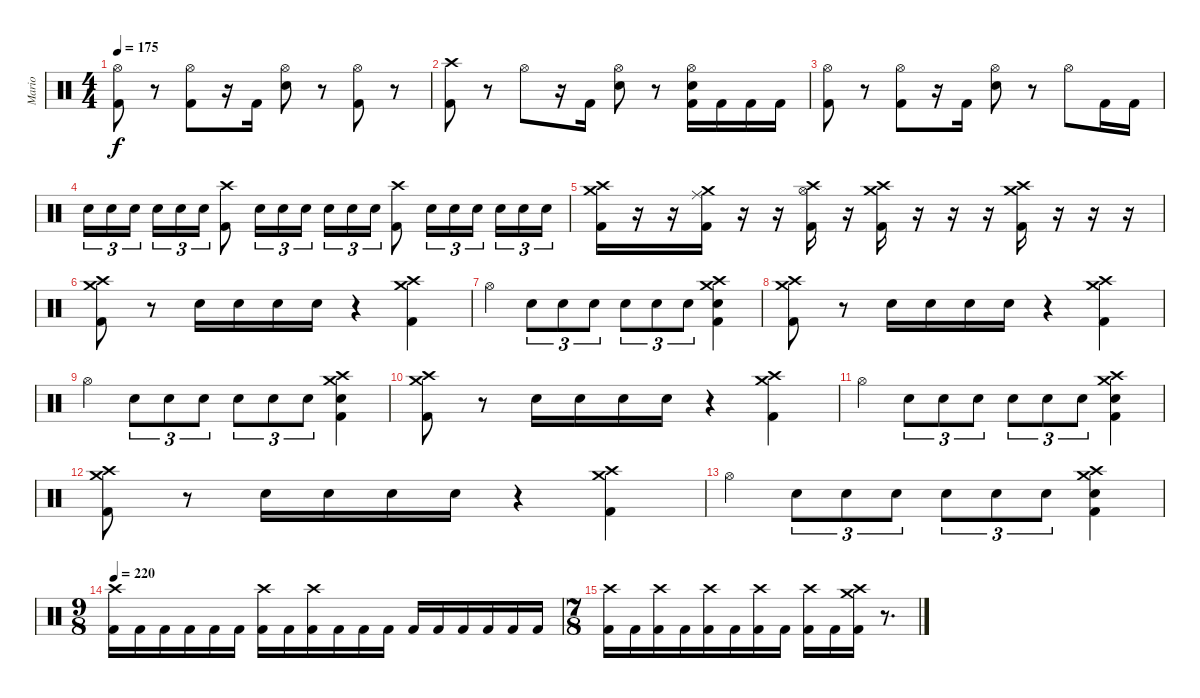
\track ("Mario" "Mario") {instrument percussion}
\staff {score}
\articulation defaults
\ts (4 4)
\tempo 175
\clef neutral
\ks c
("Hi-Hat (open)" "Kick (hit) 2").8{dy f} r.8 ("Hi-Hat (open)" "Kick (hit) 2").8 r.16 "Kick (hit) 2".16 ("Hi-Hat (open)" "Electric Snare (hit)").8 r.8 ("Hi-Hat (open)" "Kick (hit) 2").8 r.8 |
("Crash high (hit)" "Kick (hit) 2").8 r.8 "Hi-Hat (open)".8 r.16 "Kick (hit) 2".16 ("Hi-Hat (open)" "Electric Snare (hit)").8 r.8 ("Hi-Hat (open)" "Electric Snare (hit)" "Kick (hit) 2").16 "Kick (hit) 2".16 "Kick (hit) 2".16 "Kick (hit) 2".16 |
("Hi-Hat (open)" "Kick (hit) 2").8 r.8 ("Hi-Hat (open)" "Kick (hit) 2").8 r.16 "Kick (hit) 2".16 ("Hi-Hat (open)" "Electric Snare (hit)").8 r.8 "Hi-Hat (open)".8 "Kick (hit) 2".16 "Kick (hit) 2".16 |
"Electric Snare (hit)".16{tu (3 2)} "Electric Snare (hit)".16{tu (3 2)} "Electric Snare (hit)".16{tu (3 2)} "Electric Snare (hit)".16{tu (3 2)} "Electric Snare (hit)".16{tu (3 2)} "Electric Snare (hit)".16{tu (3 2)} ("Crash high (hit)" "Kick (hit) 2").8 "Electric Snare (hit)".16{tu (3 2)} "Electric Snare (hit)".16{tu (3 2)} "Electric Snare (hit)".16{tu (3 2)} "Electric Snare (hit)".16{tu (3 2)} "Electric Snare (hit)".16{tu (3 2)} "Electric Snare (hit)".16{tu (3 2)} ("Crash high (hit)" "Kick (hit) 2").8 "Electric Snare (hit)".16{tu (3 2)} "Electric Snare (hit)".16{tu (3 2)} "Electric Snare (hit)".16{tu (3 2)} "Electric Snare (hit)".16{tu (3 2)} "Electric Snare (hit)".16{tu (3 2)} "Electric Snare (hit)".16{tu (3 2)} |
("Crash high (hit)" "Crash medium (hit)" "Kick (hit) 2").16 r.16 r.16 ("Crash medium (hit)" "Ride (middle)" "Kick (hit) 2").16 r.16 r.16 ("Crash high (hit)" "Hi-Hat (open)" "Kick (hit) 2").16 r.16 ("Crash high (hit)" "Crash medium (hit)" "Kick (hit) 2").16 r.16 r.16 r.16 ("Crash high (hit)" "Crash medium (hit)" "Kick (hit) 2").16 r.16 r.16 r.16 |
("Crash high (hit)" "Crash medium (hit)" "Kick (hit) 2").8 r.8 "Electric Snare (hit)".16 "Electric Snare (hit)".16 "Electric Snare (hit)".16 "Electric Snare (hit)".16 r.4 ("Crash high (hit)" "Crash medium (hit)" "Kick (hit) 2").4 |
"Hi-Hat (open)".4 "Electric Snare (hit)".8{tu (3 2)} "Electric Snare (hit)".8{tu (3 2)} "Electric Snare (hit)".8{tu (3 2)} "Electric Snare (hit)".8{tu (3 2)} "Electric Snare (hit)".8{tu (3 2)} "Electric Snare (hit)".8{tu (3 2)} ("Crash high (hit)" "Crash medium (hit)" "Electric Snare (hit)" "Kick (hit) 2").4 |
("Crash high (hit)" "Crash medium (hit)" "Kick (hit) 2").8 r.8 "Electric Snare (hit)".16 "Electric Snare (hit)".16 "Electric Snare (hit)".16 "Electric Snare (hit)".16 r.4 ("Crash high (hit)" "Crash medium (hit)" "Kick (hit) 2").4 |
"Hi-Hat (open)".4 "Electric Snare (hit)".8{tu (3 2)} "Electric Snare (hit)".8{tu (3 2)} "Electric Snare (hit)".8{tu (3 2)} "Electric Snare (hit)".8{tu (3 2)} "Electric Snare (hit)".8{tu (3 2)} "Electric Snare (hit)".8{tu (3 2)} ("Crash high (hit)" "Crash medium (hit)" "Electric Snare (hit)" "Kick (hit) 2").4 |
("Crash high (hit)" "Crash medium (hit)" "Kick (hit) 2").8 r.8 "Electric Snare (hit)".16 "Electric Snare (hit)".16 "Electric Snare (hit)".16 "Electric Snare (hit)".16 r.4 ("Crash high (hit)" "Crash medium (hit)" "Kick (hit) 2").4 |
"Hi-Hat (open)".4 "Electric Snare (hit)".8{tu (3 2)} "Electric Snare (hit)".8{tu (3 2)} "Electric Snare (hit)".8{tu (3 2)} "Electric Snare (hit)".8{tu (3 2)} "Electric Snare (hit)".8{tu (3 2)} "Electric Snare (hit)".8{tu (3 2)} ("Crash high (hit)" "Crash medium (hit)" "Electric Snare (hit)" "Kick (hit) 2").4 |
("Crash high (hit)" "Crash medium (hit)" "Kick (hit) 2").8 r.8 "Electric Snare (hit)".16 "Electric Snare (hit)".16 "Electric Snare (hit)".16 "Electric Snare (hit)".16 r.4 ("Crash high (hit)" "Crash medium (hit)" "Kick (hit) 2").4 |
"Hi-Hat (open)".4 "Electric Snare (hit)".8{tu (3 2)} "Electric Snare (hit)".8{tu (3 2)} "Electric Snare (hit)".8{tu (3 2)} "Electric Snare (hit)".8{tu (3 2)} "Electric Snare (hit)".8{tu (3 2)} "Electric Snare (hit)".8{tu (3 2)} ("Crash high (hit)" "Crash medium (hit)" "Electric Snare (hit)" "Kick (hit) 2").4 |
\ts (9 8)
\tempo 220
("Crash high (hit)" "Kick (hit) 2").16 "Kick (hit) 2".16 "Kick (hit) 2".16 "Kick (hit) 2".16 "Kick (hit) 2".16 "Kick (hit) 2".16 ("Crash high (hit)" "Kick (hit) 2").16 "Kick (hit) 2".16 ("Crash high (hit)" "Kick (hit) 2").16 "Kick (hit) 2".16 "Kick (hit) 2".16 "Kick (hit) 2".16 "Kick (hit) 2".16 "Kick (hit) 2".16 "Kick (hit) 2".16 "Kick (hit) 2".16 "Kick (hit) 2".16 "Kick (hit) 2".16 |
\ts (7 8)
("Crash high (hit)" "Kick (hit) 2").16 "Kick (hit) 2".16 ("Crash high (hit)" "Kick (hit) 2").16 "Kick (hit) 2".16 ("Crash high (hit)" "Kick (hit) 2").16 "Kick (hit) 2".16 ("Crash high (hit)" "Kick (hit) 2").16 "Kick (hit) 2".16 ("Crash high (hit)" "Kick (hit) 2").16 "Kick (hit) 2".16 ("Crash high (hit)" "Crash medium (hit)" "Kick (hit) 2").16 r.8{d}
